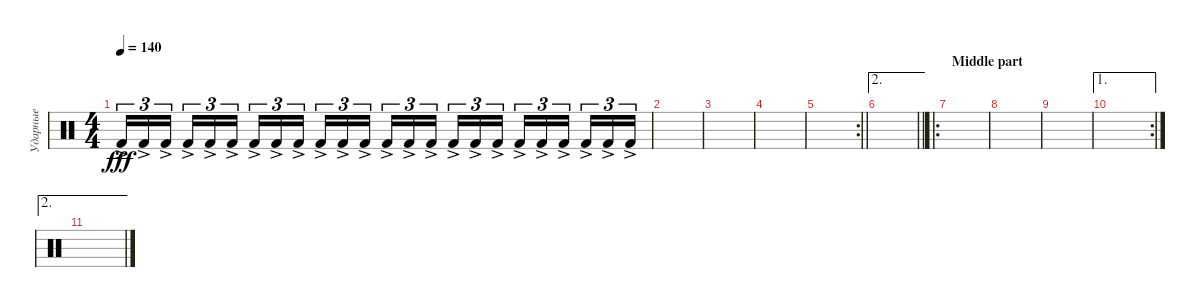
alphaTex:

\track ("Ударные" "Ударные") {instrument percussion}
\staff {score}
\articulation defaults
\ts (4 4)
\tempo 140
\clef neutral
\ks c "Kick (hit) 2"{ac}.16{tu (3 2) dy fff} "Kick (hit) 2"{ac}.16{tu (3 2)} "Kick (hit) 2"{ac}.16{tu (3 2) beam splitsecondary} "Kick (hit) 2"{ac}.16{tu (3 2)} "Kick (hit) 2"{ac}.16{tu (3 2)} "Kick (hit) 2"{ac}.16{tu (3 2)} "Kick (hit) 2"{ac}.16{tu (3 2)} "Kick (hit) 2"{ac}.16{tu (3 2)} "Kick (hit) 2"{ac}.16{tu (3 2) beam splitsecondary} "Kick (hit) 2"{ac}.16{tu (3 2)} "Kick (hit) 2"{ac}.16{tu (3 2)} "Kick (hit) 2"{ac}.16{tu (3 2)} "Kick (hit) 2"{ac}.16{tu (3 2)} "Kick (hit) 2"{ac}.16{tu (3 2)} "Kick (hit) 2"{ac}.16{tu (3 2) beam splitsecondary} "Kick (hit) 2"{ac}.16{tu (3 2)} "Kick (hit) 2"{ac}.16{tu (3 2)} "Kick (hit) 2"{ac}.16{tu (3 2)} "Kick (hit) 2"{ac}.16{tu (3 2)} "Kick (hit) 2"{ac}.16{tu (3 2)} "Kick (hit) 2"{ac}.16{tu (3 2) beam splitsecondary} "Kick (hit) 2"{ac}.16{tu (3 2)} "Kick (hit) 2"{ac}.16{tu (3 2)} "Kick (hit) 2"{ac}.16{tu (3 2)}
|
|
|
|
\rc 2
\barLineRight lightlight
|
\ae 2
\barLineRight lightlight
|
\ro
\section ("" "Middle part")
|
|
|
\ae 1
\rc 2
|
\ae 2
